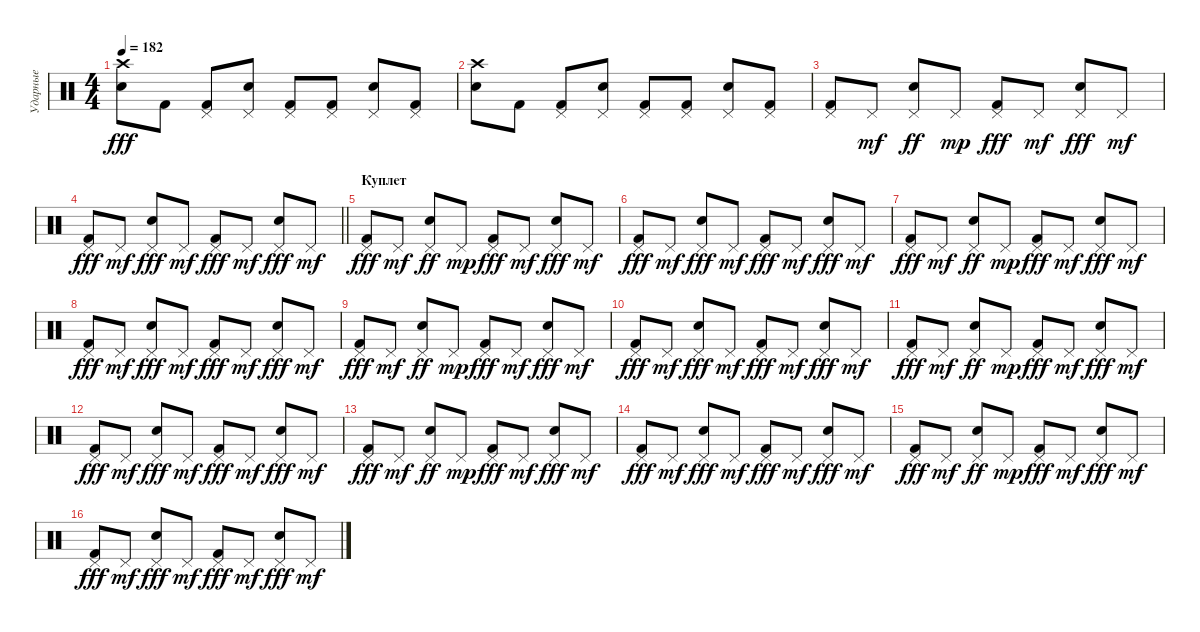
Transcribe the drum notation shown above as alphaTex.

\track ("Ударные" "Ударные") {instrument percussion}
\staff {score}
\articulation defaults
\ts (4 4)
\tempo 182
\clef neutral
\ks c
("Crash high (hit)" "Electric Snare (hit)").8{dy fff} "Kick (hit) 2".8 ("Pedal Hi-Hat (hit)" "Kick (hit) 2").8 ("Pedal Hi-Hat (hit)" "Electric Snare (hit)").8 ("Kick (hit) 2" "Pedal Hi-Hat (hit)").8 ("Pedal Hi-Hat (hit)" "Kick (hit) 2").8 ("Pedal Hi-Hat (hit)" "Electric Snare (hit)").8 ("Pedal Hi-Hat (hit)" "Kick (hit) 2").8 |
("Crash high (hit)" "Electric Snare (hit)").8 "Kick (hit) 2".8 ("Pedal Hi-Hat (hit)" "Kick (hit) 2").8 ("Pedal Hi-Hat (hit)" "Electric Snare (hit)").8 ("Kick (hit) 2" "Pedal Hi-Hat (hit)").8 ("Pedal Hi-Hat (hit)" "Kick (hit) 2").8 ("Pedal Hi-Hat (hit)" "Electric Snare (hit)").8 ("Pedal Hi-Hat (hit)" "Kick (hit) 2").8 |
("Pedal Hi-Hat (hit)" "Kick (hit) 2").8 "Pedal Hi-Hat (hit)".8{dy mf} ("Electric Snare (hit)" "Pedal Hi-Hat (hit)").8{dy ff} "Pedal Hi-Hat (hit)".8{dy mp} ("Pedal Hi-Hat (hit)" "Kick (hit) 2").8{dy fff} "Pedal Hi-Hat (hit)".8{dy mf} ("Pedal Hi-Hat (hit)" "Electric Snare (hit)").8{dy fff} "Pedal Hi-Hat (hit)".8{dy mf} |
\barLineRight lightlight
("Pedal Hi-Hat (hit)" "Kick (hit) 2").8{dy fff} "Pedal Hi-Hat (hit)".8{dy mf} ("Pedal Hi-Hat (hit)" "Electric Snare (hit)").8{dy fff} "Pedal Hi-Hat (hit)".8{dy mf} ("Pedal Hi-Hat (hit)" "Kick (hit) 2").8{dy fff} "Pedal Hi-Hat (hit)".8{dy mf} ("Pedal Hi-Hat (hit)" "Electric Snare (hit)").8{dy fff} "Pedal Hi-Hat (hit)".8{dy mf} |
\section ("" "Куплет")
("Pedal Hi-Hat (hit)" "Kick (hit) 2").8{dy fff} "Pedal Hi-Hat (hit)".8{dy mf} ("Electric Snare (hit)" "Pedal Hi-Hat (hit)").8{dy ff} "Pedal Hi-Hat (hit)".8{dy mp} ("Pedal Hi-Hat (hit)" "Kick (hit) 2").8{dy fff} "Pedal Hi-Hat (hit)".8{dy mf} ("Pedal Hi-Hat (hit)" "Electric Snare (hit)").8{dy fff} "Pedal Hi-Hat (hit)".8{dy mf} |
("Pedal Hi-Hat (hit)" "Kick (hit) 2").8{dy fff} "Pedal Hi-Hat (hit)".8{dy mf} ("Pedal Hi-Hat (hit)" "Electric Snare (hit)").8{dy fff} "Pedal Hi-Hat (hit)".8{dy mf} ("Pedal Hi-Hat (hit)" "Kick (hit) 2").8{dy fff} "Pedal Hi-Hat (hit)".8{dy mf} ("Pedal Hi-Hat (hit)" "Electric Snare (hit)").8{dy fff} "Pedal Hi-Hat (hit)".8{dy mf} |
("Pedal Hi-Hat (hit)" "Kick (hit) 2").8{dy fff} "Pedal Hi-Hat (hit)".8{dy mf} ("Electric Snare (hit)" "Pedal Hi-Hat (hit)").8{dy ff} "Pedal Hi-Hat (hit)".8{dy mp} ("Pedal Hi-Hat (hit)" "Kick (hit) 2").8{dy fff} "Pedal Hi-Hat (hit)".8{dy mf} ("Pedal Hi-Hat (hit)" "Electric Snare (hit)").8{dy fff} "Pedal Hi-Hat (hit)".8{dy mf} |
("Pedal Hi-Hat (hit)" "Kick (hit) 2").8{dy fff} "Pedal Hi-Hat (hit)".8{dy mf} ("Pedal Hi-Hat (hit)" "Electric Snare (hit)").8{dy fff} "Pedal Hi-Hat (hit)".8{dy mf} ("Pedal Hi-Hat (hit)" "Kick (hit) 2").8{dy fff} "Pedal Hi-Hat (hit)".8{dy mf} ("Pedal Hi-Hat (hit)" "Electric Snare (hit)").8{dy fff} "Pedal Hi-Hat (hit)".8{dy mf} |
("Pedal Hi-Hat (hit)" "Kick (hit) 2").8{dy fff} "Pedal Hi-Hat (hit)".8{dy mf} ("Electric Snare (hit)" "Pedal Hi-Hat (hit)").8{dy ff} "Pedal Hi-Hat (hit)".8{dy mp} ("Pedal Hi-Hat (hit)" "Kick (hit) 2").8{dy fff} "Pedal Hi-Hat (hit)".8{dy mf} ("Pedal Hi-Hat (hit)" "Electric Snare (hit)").8{dy fff} "Pedal Hi-Hat (hit)".8{dy mf} |
("Pedal Hi-Hat (hit)" "Kick (hit) 2").8{dy fff} "Pedal Hi-Hat (hit)".8{dy mf} ("Pedal Hi-Hat (hit)" "Electric Snare (hit)").8{dy fff} "Pedal Hi-Hat (hit)".8{dy mf} ("Pedal Hi-Hat (hit)" "Kick (hit) 2").8{dy fff} "Pedal Hi-Hat (hit)".8{dy mf} ("Pedal Hi-Hat (hit)" "Electric Snare (hit)").8{dy fff} "Pedal Hi-Hat (hit)".8{dy mf} |
("Pedal Hi-Hat (hit)" "Kick (hit) 2").8{dy fff} "Pedal Hi-Hat (hit)".8{dy mf} ("Electric Snare (hit)" "Pedal Hi-Hat (hit)").8{dy ff} "Pedal Hi-Hat (hit)".8{dy mp} ("Pedal Hi-Hat (hit)" "Kick (hit) 2").8{dy fff} "Pedal Hi-Hat (hit)".8{dy mf} ("Pedal Hi-Hat (hit)" "Electric Snare (hit)").8{dy fff} "Pedal Hi-Hat (hit)".8{dy mf} |
("Pedal Hi-Hat (hit)" "Kick (hit) 2").8{dy fff} "Pedal Hi-Hat (hit)".8{dy mf} ("Pedal Hi-Hat (hit)" "Electric Snare (hit)").8{dy fff} "Pedal Hi-Hat (hit)".8{dy mf} ("Pedal Hi-Hat (hit)" "Kick (hit) 2").8{dy fff} "Pedal Hi-Hat (hit)".8{dy mf} ("Pedal Hi-Hat (hit)" "Electric Snare (hit)").8{dy fff} "Pedal Hi-Hat (hit)".8{dy mf} |
("Pedal Hi-Hat (hit)" "Kick (hit) 2").8{dy fff} "Pedal Hi-Hat (hit)".8{dy mf} ("Electric Snare (hit)" "Pedal Hi-Hat (hit)").8{dy ff} "Pedal Hi-Hat (hit)".8{dy mp} ("Pedal Hi-Hat (hit)" "Kick (hit) 2").8{dy fff} "Pedal Hi-Hat (hit)".8{dy mf} ("Pedal Hi-Hat (hit)" "Electric Snare (hit)").8{dy fff} "Pedal Hi-Hat (hit)".8{dy mf} |
("Pedal Hi-Hat (hit)" "Kick (hit) 2").8{dy fff} "Pedal Hi-Hat (hit)".8{dy mf} ("Pedal Hi-Hat (hit)" "Electric Snare (hit)").8{dy fff} "Pedal Hi-Hat (hit)".8{dy mf} ("Pedal Hi-Hat (hit)" "Kick (hit) 2").8{dy fff} "Pedal Hi-Hat (hit)".8{dy mf} ("Pedal Hi-Hat (hit)" "Electric Snare (hit)").8{dy fff} "Pedal Hi-Hat (hit)".8{dy mf} |
("Pedal Hi-Hat (hit)" "Kick (hit) 2").8{dy fff} "Pedal Hi-Hat (hit)".8{dy mf} ("Electric Snare (hit)" "Pedal Hi-Hat (hit)").8{dy ff} "Pedal Hi-Hat (hit)".8{dy mp} ("Pedal Hi-Hat (hit)" "Kick (hit) 2").8{dy fff} "Pedal Hi-Hat (hit)".8{dy mf} ("Pedal Hi-Hat (hit)" "Electric Snare (hit)").8{dy fff} "Pedal Hi-Hat (hit)".8{dy mf} |
("Pedal Hi-Hat (hit)" "Kick (hit) 2").8{dy fff} "Pedal Hi-Hat (hit)".8{dy mf} ("Pedal Hi-Hat (hit)" "Electric Snare (hit)").8{dy fff} "Pedal Hi-Hat (hit)".8{dy mf} ("Pedal Hi-Hat (hit)" "Kick (hit) 2").8{dy fff} "Pedal Hi-Hat (hit)".8{dy mf} ("Pedal Hi-Hat (hit)" "Electric Snare (hit)").8{dy fff} "Pedal Hi-Hat (hit)".8{dy mf}
